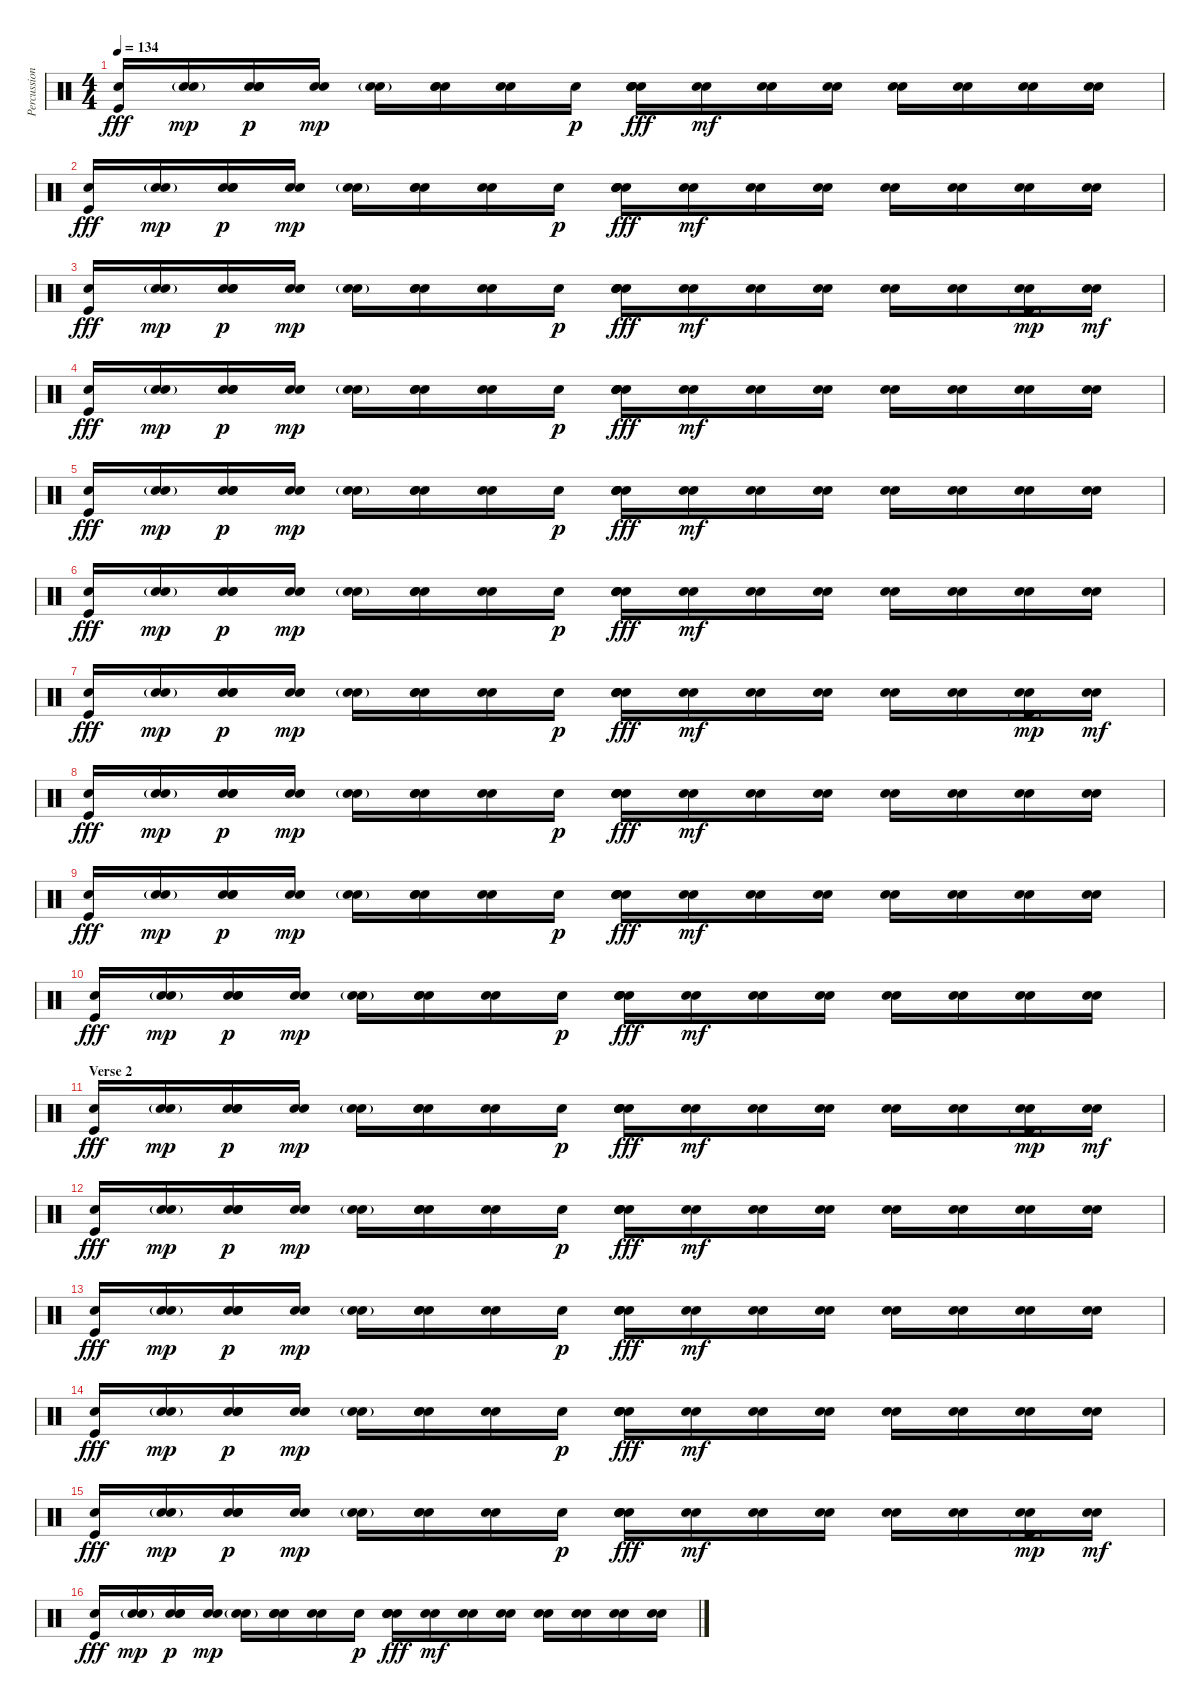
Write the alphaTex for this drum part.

\track ("Percussion" "Percussion") {instrument percussion}
\staff {score}
\articulation defaults
\ts (4 4)
\tempo 134
\clef neutral
\ks c
("Electric Snare (hit)" "Kick (hit)").16{dy fff} ("Electric Snare (hit)" "Electric Snare (hit)"{g}).16{dy mp} ("Electric Snare (hit)" "Electric Snare (hit)" "Snare (hit) 2").16{dy p} ("Electric Snare (hit)" "Snare (hit) 2").16{dy mp} ("Electric Snare (hit)" "Electric Snare (hit)"{g}).16 ("Electric Snare (hit)" "Electric Snare (hit)" "Snare (hit) 2").16 ("Electric Snare (hit)" "Snare (hit) 2").16 "Electric Snare (hit)".16{dy p} ("Electric Snare (hit)" "Snare (hit) 2" "Snare (hit) 2" "Snare (hit) 2").16{dy fff} ("Electric Snare (hit)" "Snare (hit) 2").16{dy mf} ("Electric Snare (hit)" "Snare (hit) 2").16 ("Electric Snare (hit)" "Snare (hit) 2").16 ("Electric Snare (hit)" "Snare (hit) 2").16 ("Electric Snare (hit)" "Snare (hit) 2").16 ("Electric Snare (hit)" "Snare (hit) 2").16 ("Electric Snare (hit)" "Snare (hit) 2").16 |
("Electric Snare (hit)" "Kick (hit)").16{dy fff} ("Electric Snare (hit)" "Electric Snare (hit)"{g}).16{dy mp} ("Electric Snare (hit)" "Electric Snare (hit)" "Snare (hit) 2").16{dy p} ("Electric Snare (hit)" "Snare (hit) 2").16{dy mp} ("Electric Snare (hit)" "Electric Snare (hit)"{g}).16 ("Electric Snare (hit)" "Electric Snare (hit)" "Snare (hit) 2").16 ("Electric Snare (hit)" "Snare (hit) 2").16 "Electric Snare (hit)".16{dy p} ("Electric Snare (hit)" "Snare (hit) 2" "Snare (hit) 2" "Snare (hit) 2").16{dy fff} ("Electric Snare (hit)" "Snare (hit) 2").16{dy mf} ("Electric Snare (hit)" "Snare (hit) 2").16 ("Electric Snare (hit)" "Snare (hit) 2").16 ("Electric Snare (hit)" "Snare (hit) 2").16 ("Electric Snare (hit)" "Snare (hit) 2").16 ("Electric Snare (hit)" "Snare (hit) 2").16 ("Electric Snare (hit)" "Snare (hit) 2").16 |
("Electric Snare (hit)" "Kick (hit)").16{dy fff} ("Electric Snare (hit)" "Electric Snare (hit)"{g}).16{dy mp} ("Electric Snare (hit)" "Electric Snare (hit)" "Snare (hit) 2").16{dy p} ("Electric Snare (hit)" "Snare (hit) 2").16{dy mp} ("Electric Snare (hit)" "Electric Snare (hit)"{g}).16 ("Electric Snare (hit)" "Electric Snare (hit)" "Snare (hit) 2").16 ("Electric Snare (hit)" "Snare (hit) 2").16 "Electric Snare (hit)".16{dy p} ("Electric Snare (hit)" "Snare (hit) 2" "Snare (hit) 2" "Snare (hit) 2").16{dy fff} ("Electric Snare (hit)" "Snare (hit) 2").16{dy mf} ("Electric Snare (hit)" "Snare (hit) 2").16 ("Electric Snare (hit)" "Snare (hit) 2").16 ("Electric Snare (hit)" "Snare (hit) 2").16 ("Electric Snare (hit)" "Snare (hit) 2").16 ("Electric Snare (hit)" "Snare (hit) 2" "Kick (hit)"{g}).16{dy mp} ("Electric Snare (hit)" "Snare (hit) 2").16{dy mf} |
("Electric Snare (hit)" "Kick (hit)").16{dy fff} ("Electric Snare (hit)" "Electric Snare (hit)"{g}).16{dy mp} ("Electric Snare (hit)" "Electric Snare (hit)" "Snare (hit) 2").16{dy p} ("Electric Snare (hit)" "Snare (hit) 2").16{dy mp} ("Electric Snare (hit)" "Electric Snare (hit)"{g}).16 ("Electric Snare (hit)" "Electric Snare (hit)" "Snare (hit) 2").16 ("Electric Snare (hit)" "Snare (hit) 2").16 "Electric Snare (hit)".16{dy p} ("Electric Snare (hit)" "Snare (hit) 2" "Snare (hit) 2" "Snare (hit) 2").16{dy fff} ("Electric Snare (hit)" "Snare (hit) 2").16{dy mf} ("Electric Snare (hit)" "Snare (hit) 2").16 ("Electric Snare (hit)" "Snare (hit) 2").16 ("Electric Snare (hit)" "Snare (hit) 2").16 ("Electric Snare (hit)" "Snare (hit) 2").16 ("Electric Snare (hit)" "Snare (hit) 2").16 ("Electric Snare (hit)" "Snare (hit) 2").16 |
("Electric Snare (hit)" "Kick (hit)").16{dy fff} ("Electric Snare (hit)" "Electric Snare (hit)"{g}).16{dy mp} ("Electric Snare (hit)" "Electric Snare (hit)" "Snare (hit) 2").16{dy p} ("Electric Snare (hit)" "Snare (hit) 2").16{dy mp} ("Electric Snare (hit)" "Electric Snare (hit)"{g}).16 ("Electric Snare (hit)" "Electric Snare (hit)" "Snare (hit) 2").16 ("Electric Snare (hit)" "Snare (hit) 2").16 "Electric Snare (hit)".16{dy p} ("Electric Snare (hit)" "Snare (hit) 2" "Snare (hit) 2" "Snare (hit) 2").16{dy fff} ("Electric Snare (hit)" "Snare (hit) 2").16{dy mf} ("Electric Snare (hit)" "Snare (hit) 2").16 ("Electric Snare (hit)" "Snare (hit) 2").16 ("Electric Snare (hit)" "Snare (hit) 2").16 ("Electric Snare (hit)" "Snare (hit) 2").16 ("Electric Snare (hit)" "Snare (hit) 2").16 ("Electric Snare (hit)" "Snare (hit) 2").16 |
("Electric Snare (hit)" "Kick (hit)").16{dy fff} ("Electric Snare (hit)" "Electric Snare (hit)"{g}).16{dy mp} ("Electric Snare (hit)" "Electric Snare (hit)" "Snare (hit) 2").16{dy p} ("Electric Snare (hit)" "Snare (hit) 2").16{dy mp} ("Electric Snare (hit)" "Electric Snare (hit)"{g}).16 ("Electric Snare (hit)" "Electric Snare (hit)" "Snare (hit) 2").16 ("Electric Snare (hit)" "Snare (hit) 2").16 "Electric Snare (hit)".16{dy p} ("Electric Snare (hit)" "Snare (hit) 2" "Snare (hit) 2" "Snare (hit) 2").16{dy fff} ("Electric Snare (hit)" "Snare (hit) 2").16{dy mf} ("Electric Snare (hit)" "Snare (hit) 2").16 ("Electric Snare (hit)" "Snare (hit) 2").16 ("Electric Snare (hit)" "Snare (hit) 2").16 ("Electric Snare (hit)" "Snare (hit) 2").16 ("Electric Snare (hit)" "Snare (hit) 2").16 ("Electric Snare (hit)" "Snare (hit) 2").16 |
("Electric Snare (hit)" "Kick (hit)").16{dy fff} ("Electric Snare (hit)" "Electric Snare (hit)"{g}).16{dy mp} ("Electric Snare (hit)" "Electric Snare (hit)" "Snare (hit) 2").16{dy p} ("Electric Snare (hit)" "Snare (hit) 2").16{dy mp} ("Electric Snare (hit)" "Electric Snare (hit)"{g}).16 ("Electric Snare (hit)" "Electric Snare (hit)" "Snare (hit) 2").16 ("Electric Snare (hit)" "Snare (hit) 2").16 "Electric Snare (hit)".16{dy p} ("Electric Snare (hit)" "Snare (hit) 2" "Snare (hit) 2" "Snare (hit) 2").16{dy fff} ("Electric Snare (hit)" "Snare (hit) 2").16{dy mf} ("Electric Snare (hit)" "Snare (hit) 2").16 ("Electric Snare (hit)" "Snare (hit) 2").16 ("Electric Snare (hit)" "Snare (hit) 2").16 ("Electric Snare (hit)" "Snare (hit) 2").16 ("Electric Snare (hit)" "Snare (hit) 2" "Kick (hit)"{g}).16{dy mp} ("Electric Snare (hit)" "Snare (hit) 2").16{dy mf} |
("Electric Snare (hit)" "Kick (hit)").16{dy fff} ("Electric Snare (hit)" "Electric Snare (hit)"{g}).16{dy mp} ("Electric Snare (hit)" "Electric Snare (hit)" "Snare (hit) 2").16{dy p} ("Electric Snare (hit)" "Snare (hit) 2").16{dy mp} ("Electric Snare (hit)" "Electric Snare (hit)"{g}).16 ("Electric Snare (hit)" "Electric Snare (hit)" "Snare (hit) 2").16 ("Electric Snare (hit)" "Snare (hit) 2").16 "Electric Snare (hit)".16{dy p} ("Electric Snare (hit)" "Snare (hit) 2" "Snare (hit) 2" "Snare (hit) 2").16{dy fff} ("Electric Snare (hit)" "Snare (hit) 2").16{dy mf} ("Electric Snare (hit)" "Snare (hit) 2").16 ("Electric Snare (hit)" "Snare (hit) 2").16 ("Electric Snare (hit)" "Snare (hit) 2").16 ("Electric Snare (hit)" "Snare (hit) 2").16 ("Electric Snare (hit)" "Snare (hit) 2").16 ("Electric Snare (hit)" "Snare (hit) 2").16 |
("Electric Snare (hit)" "Kick (hit)").16{dy fff} ("Electric Snare (hit)" "Electric Snare (hit)"{g}).16{dy mp} ("Electric Snare (hit)" "Electric Snare (hit)" "Snare (hit) 2").16{dy p} ("Electric Snare (hit)" "Snare (hit) 2").16{dy mp} ("Electric Snare (hit)" "Electric Snare (hit)"{g}).16 ("Electric Snare (hit)" "Electric Snare (hit)" "Snare (hit) 2").16 ("Electric Snare (hit)" "Snare (hit) 2").16 "Electric Snare (hit)".16{dy p} ("Electric Snare (hit)" "Snare (hit) 2" "Snare (hit) 2" "Snare (hit) 2").16{dy fff} ("Electric Snare (hit)" "Snare (hit) 2").16{dy mf} ("Electric Snare (hit)" "Snare (hit) 2").16 ("Electric Snare (hit)" "Snare (hit) 2").16 ("Electric Snare (hit)" "Snare (hit) 2").16 ("Electric Snare (hit)" "Snare (hit) 2").16 ("Electric Snare (hit)" "Snare (hit) 2").16 ("Electric Snare (hit)" "Snare (hit) 2").16 |
("Electric Snare (hit)" "Kick (hit)").16{dy fff} ("Electric Snare (hit)" "Electric Snare (hit)"{g}).16{dy mp} ("Electric Snare (hit)" "Electric Snare (hit)" "Snare (hit) 2").16{dy p} ("Electric Snare (hit)" "Snare (hit) 2").16{dy mp} ("Electric Snare (hit)" "Electric Snare (hit)"{g}).16 ("Electric Snare (hit)" "Electric Snare (hit)" "Snare (hit) 2").16 ("Electric Snare (hit)" "Snare (hit) 2").16 "Electric Snare (hit)".16{dy p} ("Electric Snare (hit)" "Snare (hit) 2" "Snare (hit) 2" "Snare (hit) 2").16{dy fff} ("Electric Snare (hit)" "Snare (hit) 2").16{dy mf} ("Electric Snare (hit)" "Snare (hit) 2").16 ("Electric Snare (hit)" "Snare (hit) 2").16 ("Electric Snare (hit)" "Snare (hit) 2").16 ("Electric Snare (hit)" "Snare (hit) 2").16 ("Electric Snare (hit)" "Snare (hit) 2").16 ("Electric Snare (hit)" "Snare (hit) 2").16 |
\section ("" "Verse 2")
("Electric Snare (hit)" "Kick (hit)").16{dy fff} ("Electric Snare (hit)" "Electric Snare (hit)"{g}).16{dy mp} ("Electric Snare (hit)" "Electric Snare (hit)" "Snare (hit) 2").16{dy p} ("Electric Snare (hit)" "Snare (hit) 2").16{dy mp} ("Electric Snare (hit)" "Electric Snare (hit)"{g}).16 ("Electric Snare (hit)" "Electric Snare (hit)" "Snare (hit) 2").16 ("Electric Snare (hit)" "Snare (hit) 2").16 "Electric Snare (hit)".16{dy p} ("Electric Snare (hit)" "Snare (hit) 2" "Snare (hit) 2" "Snare (hit) 2").16{dy fff} ("Electric Snare (hit)" "Snare (hit) 2").16{dy mf} ("Electric Snare (hit)" "Snare (hit) 2").16 ("Electric Snare (hit)" "Snare (hit) 2").16 ("Electric Snare (hit)" "Snare (hit) 2").16 ("Electric Snare (hit)" "Snare (hit) 2").16 ("Electric Snare (hit)" "Snare (hit) 2" "Kick (hit)"{g}).16{dy mp} ("Electric Snare (hit)" "Snare (hit) 2").16{dy mf} |
("Electric Snare (hit)" "Kick (hit)").16{dy fff} ("Electric Snare (hit)" "Electric Snare (hit)"{g}).16{dy mp} ("Electric Snare (hit)" "Electric Snare (hit)" "Snare (hit) 2").16{dy p} ("Electric Snare (hit)" "Snare (hit) 2").16{dy mp} ("Electric Snare (hit)" "Electric Snare (hit)"{g}).16 ("Electric Snare (hit)" "Electric Snare (hit)" "Snare (hit) 2").16 ("Electric Snare (hit)" "Snare (hit) 2").16 "Electric Snare (hit)".16{dy p} ("Electric Snare (hit)" "Snare (hit) 2" "Snare (hit) 2" "Snare (hit) 2").16{dy fff} ("Electric Snare (hit)" "Snare (hit) 2").16{dy mf} ("Electric Snare (hit)" "Snare (hit) 2").16 ("Electric Snare (hit)" "Snare (hit) 2").16 ("Electric Snare (hit)" "Snare (hit) 2").16 ("Electric Snare (hit)" "Snare (hit) 2").16 ("Electric Snare (hit)" "Snare (hit) 2").16 ("Electric Snare (hit)" "Snare (hit) 2").16 |
("Electric Snare (hit)" "Kick (hit)").16{dy fff} ("Electric Snare (hit)" "Electric Snare (hit)"{g}).16{dy mp} ("Electric Snare (hit)" "Electric Snare (hit)" "Snare (hit) 2").16{dy p} ("Electric Snare (hit)" "Snare (hit) 2").16{dy mp} ("Electric Snare (hit)" "Electric Snare (hit)"{g}).16 ("Electric Snare (hit)" "Electric Snare (hit)" "Snare (hit) 2").16 ("Electric Snare (hit)" "Snare (hit) 2").16 "Electric Snare (hit)".16{dy p} ("Electric Snare (hit)" "Snare (hit) 2" "Snare (hit) 2" "Snare (hit) 2").16{dy fff} ("Electric Snare (hit)" "Snare (hit) 2").16{dy mf} ("Electric Snare (hit)" "Snare (hit) 2").16 ("Electric Snare (hit)" "Snare (hit) 2").16 ("Electric Snare (hit)" "Snare (hit) 2").16 ("Electric Snare (hit)" "Snare (hit) 2").16 ("Electric Snare (hit)" "Snare (hit) 2").16 ("Electric Snare (hit)" "Snare (hit) 2").16 |
("Electric Snare (hit)" "Kick (hit)").16{dy fff} ("Electric Snare (hit)" "Electric Snare (hit)"{g}).16{dy mp} ("Electric Snare (hit)" "Electric Snare (hit)" "Snare (hit) 2").16{dy p} ("Electric Snare (hit)" "Snare (hit) 2").16{dy mp} ("Electric Snare (hit)" "Electric Snare (hit)"{g}).16 ("Electric Snare (hit)" "Electric Snare (hit)" "Snare (hit) 2").16 ("Electric Snare (hit)" "Snare (hit) 2").16 "Electric Snare (hit)".16{dy p} ("Electric Snare (hit)" "Snare (hit) 2" "Snare (hit) 2" "Snare (hit) 2").16{dy fff} ("Electric Snare (hit)" "Snare (hit) 2").16{dy mf} ("Electric Snare (hit)" "Snare (hit) 2").16 ("Electric Snare (hit)" "Snare (hit) 2").16 ("Electric Snare (hit)" "Snare (hit) 2").16 ("Electric Snare (hit)" "Snare (hit) 2").16 ("Electric Snare (hit)" "Snare (hit) 2").16 ("Electric Snare (hit)" "Snare (hit) 2").16 |
("Electric Snare (hit)" "Kick (hit)").16{dy fff} ("Electric Snare (hit)" "Electric Snare (hit)"{g}).16{dy mp} ("Electric Snare (hit)" "Electric Snare (hit)" "Snare (hit) 2").16{dy p} ("Electric Snare (hit)" "Snare (hit) 2").16{dy mp} ("Electric Snare (hit)" "Electric Snare (hit)"{g}).16 ("Electric Snare (hit)" "Electric Snare (hit)" "Snare (hit) 2").16 ("Electric Snare (hit)" "Snare (hit) 2").16 "Electric Snare (hit)".16{dy p} ("Electric Snare (hit)" "Snare (hit) 2" "Snare (hit) 2" "Snare (hit) 2").16{dy fff} ("Electric Snare (hit)" "Snare (hit) 2").16{dy mf} ("Electric Snare (hit)" "Snare (hit) 2").16 ("Electric Snare (hit)" "Snare (hit) 2").16 ("Electric Snare (hit)" "Snare (hit) 2").16 ("Electric Snare (hit)" "Snare (hit) 2").16 ("Electric Snare (hit)" "Snare (hit) 2" "Kick (hit)"{g}).16{dy mp} ("Electric Snare (hit)" "Snare (hit) 2").16{dy mf} |
("Electric Snare (hit)" "Kick (hit)").16{dy fff} ("Electric Snare (hit)" "Electric Snare (hit)"{g}).16{dy mp} ("Electric Snare (hit)" "Electric Snare (hit)" "Snare (hit) 2").16{dy p} ("Electric Snare (hit)" "Snare (hit) 2").16{dy mp} ("Electric Snare (hit)" "Electric Snare (hit)"{g}).16 ("Electric Snare (hit)" "Electric Snare (hit)" "Snare (hit) 2").16 ("Electric Snare (hit)" "Snare (hit) 2").16 "Electric Snare (hit)".16{dy p} ("Electric Snare (hit)" "Snare (hit) 2" "Snare (hit) 2" "Snare (hit) 2").16{dy fff} ("Electric Snare (hit)" "Snare (hit) 2").16{dy mf} ("Electric Snare (hit)" "Snare (hit) 2").16 ("Electric Snare (hit)" "Snare (hit) 2").16 ("Electric Snare (hit)" "Snare (hit) 2").16 ("Electric Snare (hit)" "Snare (hit) 2").16 ("Electric Snare (hit)" "Snare (hit) 2").16 ("Electric Snare (hit)" "Snare (hit) 2").16
